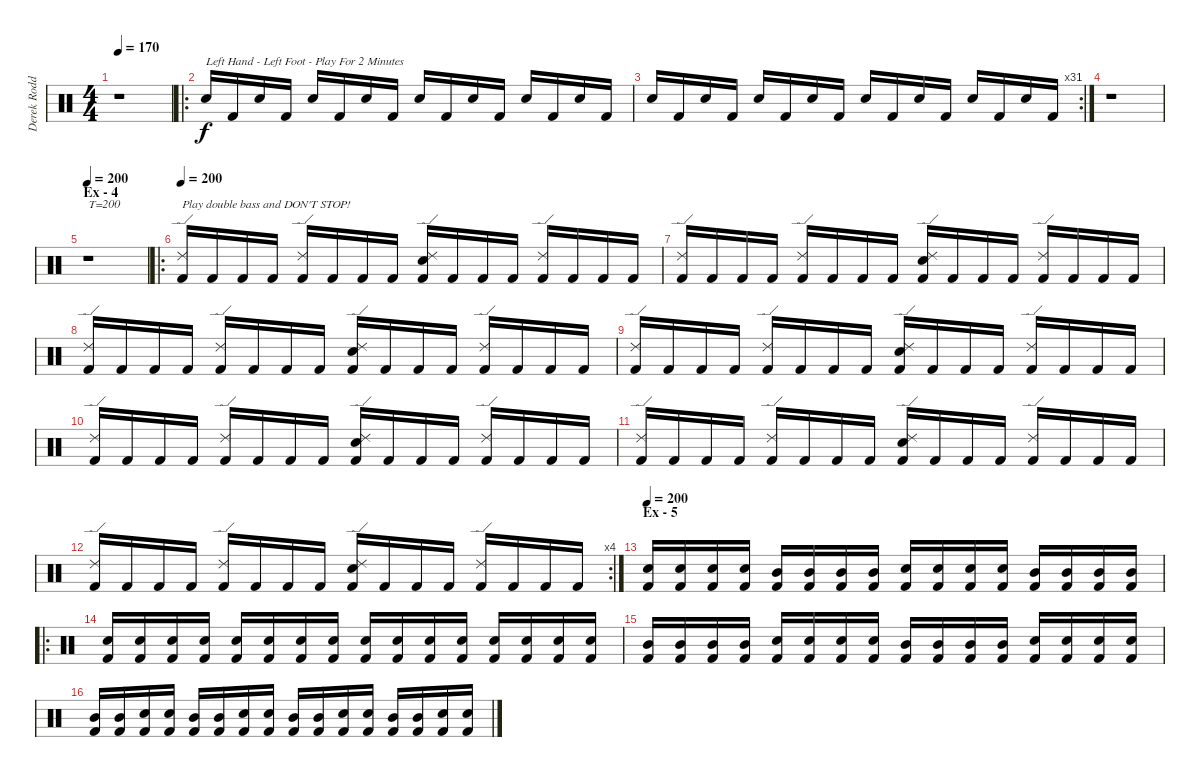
\track ("Derek Roddy" "Derek Rodd") {instrument percussion}
\staff {score}
\articulation defaults
\ts (4 4)
\tempo 170
\clef neutral
\ks c
r.1{dy f} |
\ro "Electric Snare (hit)".16{txt "Left Hand - Left Foot - Play For 2 Minutes"} "Kick (hit) 2".16 "Electric Snare (hit)".16 "Kick (hit) 2".16 "Electric Snare (hit)".16 "Kick (hit) 2".16 "Electric Snare (hit)".16 "Kick (hit) 2".16 "Electric Snare (hit)".16 "Kick (hit) 2".16 "Electric Snare (hit)".16 "Kick (hit) 2".16 "Electric Snare (hit)".16 "Kick (hit) 2".16 "Electric Snare (hit)".16 "Kick (hit) 2".16
|
\rc 31 "Electric Snare (hit)".16 "Kick (hit) 2".16 "Electric Snare (hit)".16 "Kick (hit) 2".16 "Electric Snare (hit)".16 "Kick (hit) 2".16 "Electric Snare (hit)".16 "Kick (hit) 2".16 "Electric Snare (hit)".16 "Kick (hit) 2".16 "Electric Snare (hit)".16 "Kick (hit) 2".16 "Electric Snare (hit)".16 "Kick (hit) 2".16 "Electric Snare (hit)".16 "Kick (hit) 2".16
|
r.1 |
\section ("" "Ex - 4")
\tempo 200
r.1{txt "T=200 "} |
\ro
\tempo 200
("Ride (edge) 2" "Kick (hit) 2").16{txt "Play double bass and DON'T STOP!"} "Kick (hit) 2".16 "Kick (hit) 2".16 "Kick (hit) 2".16 ("Ride (edge) 2" "Kick (hit) 2").16 "Kick (hit) 2".16 "Kick (hit) 2".16 "Kick (hit) 2".16 ("Ride (edge) 2" "Electric Snare (hit)" "Kick (hit) 2").16 "Kick (hit) 2".16 "Kick (hit) 2".16 "Kick (hit) 2".16 ("Ride (edge) 2" "Kick (hit) 2").16 "Kick (hit) 2".16 "Kick (hit) 2".16 "Kick (hit) 2".16 |
("Ride (edge) 2" "Kick (hit) 2").16 "Kick (hit) 2".16 "Kick (hit) 2".16 "Kick (hit) 2".16 ("Ride (edge) 2" "Kick (hit) 2").16 "Kick (hit) 2".16 "Kick (hit) 2".16 "Kick (hit) 2".16 ("Ride (edge) 2" "Electric Snare (hit)" "Kick (hit) 2").16 "Kick (hit) 2".16 "Kick (hit) 2".16 "Kick (hit) 2".16 ("Ride (edge) 2" "Kick (hit) 2").16 "Kick (hit) 2".16 "Kick (hit) 2".16 "Kick (hit) 2".16 |
("Ride (edge) 2" "Kick (hit) 2").16 "Kick (hit) 2".16 "Kick (hit) 2".16 "Kick (hit) 2".16 ("Ride (edge) 2" "Kick (hit) 2").16 "Kick (hit) 2".16 "Kick (hit) 2".16 "Kick (hit) 2".16 ("Ride (edge) 2" "Electric Snare (hit)" "Kick (hit) 2").16 "Kick (hit) 2".16 "Kick (hit) 2".16 "Kick (hit) 2".16 ("Ride (edge) 2" "Kick (hit) 2").16 "Kick (hit) 2".16 "Kick (hit) 2".16 "Kick (hit) 2".16 |
("Ride (edge) 2" "Kick (hit) 2").16 "Kick (hit) 2".16 "Kick (hit) 2".16 "Kick (hit) 2".16 ("Ride (edge) 2" "Kick (hit) 2").16 "Kick (hit) 2".16 "Kick (hit) 2".16 "Kick (hit) 2".16 ("Ride (edge) 2" "Electric Snare (hit)" "Kick (hit) 2").16 "Kick (hit) 2".16 "Kick (hit) 2".16 "Kick (hit) 2".16 ("Ride (edge) 2" "Kick (hit) 2").16 "Kick (hit) 2".16 "Kick (hit) 2".16 "Kick (hit) 2".16 |
("Ride (edge) 2" "Kick (hit) 2").16 "Kick (hit) 2".16 "Kick (hit) 2".16 "Kick (hit) 2".16 ("Ride (edge) 2" "Kick (hit) 2").16 "Kick (hit) 2".16 "Kick (hit) 2".16 "Kick (hit) 2".16 ("Ride (edge) 2" "Electric Snare (hit)" "Kick (hit) 2").16 "Kick (hit) 2".16 "Kick (hit) 2".16 "Kick (hit) 2".16 ("Ride (edge) 2" "Kick (hit) 2").16 "Kick (hit) 2".16 "Kick (hit) 2".16 "Kick (hit) 2".16 |
("Ride (edge) 2" "Kick (hit) 2").16 "Kick (hit) 2".16 "Kick (hit) 2".16 "Kick (hit) 2".16 ("Ride (edge) 2" "Kick (hit) 2").16 "Kick (hit) 2".16 "Kick (hit) 2".16 "Kick (hit) 2".16 ("Ride (edge) 2" "Electric Snare (hit)" "Kick (hit) 2").16 "Kick (hit) 2".16 "Kick (hit) 2".16 "Kick (hit) 2".16 ("Ride (edge) 2" "Kick (hit) 2").16 "Kick (hit) 2".16 "Kick (hit) 2".16 "Kick (hit) 2".16 |
\rc 4
("Ride (edge) 2" "Kick (hit) 2").16 "Kick (hit) 2".16 "Kick (hit) 2".16 "Kick (hit) 2".16 ("Ride (edge) 2" "Kick (hit) 2").16 "Kick (hit) 2".16 "Kick (hit) 2".16 "Kick (hit) 2".16 ("Ride (edge) 2" "Electric Snare (hit)" "Kick (hit) 2").16 "Kick (hit) 2".16 "Kick (hit) 2".16 "Kick (hit) 2".16 ("Ride (edge) 2" "Kick (hit) 2").16 "Kick (hit) 2".16 "Kick (hit) 2".16 "Kick (hit) 2".16 |
\section ("" "Ex - 5")
\tempo 200
("Electric Snare (hit)" "Kick (hit) 2").16 ("Electric Snare (hit)" "Kick (hit) 2").16 ("Electric Snare (hit)" "Kick (hit) 2").16 ("Electric Snare (hit)" "Kick (hit) 2").16 ("Mid Tom (hit)" "Kick (hit) 2").16 ("Mid Tom (hit)" "Kick (hit) 2").16 ("Mid Tom (hit)" "Kick (hit) 2").16 ("Mid Tom (hit)" "Kick (hit) 2").16 ("Electric Snare (hit)" "Kick (hit) 2").16 ("Electric Snare (hit)" "Kick (hit) 2").16 ("Electric Snare (hit)" "Kick (hit) 2").16 ("Electric Snare (hit)" "Kick (hit) 2").16 ("Mid Tom (hit)" "Kick (hit) 2").16 ("Mid Tom (hit)" "Kick (hit) 2").16 ("Mid Tom (hit)" "Kick (hit) 2").16 ("Mid Tom (hit)" "Kick (hit) 2").16 |
\ro
("Electric Snare (hit)" "Kick (hit) 2").16 ("Electric Snare (hit)" "Kick (hit) 2").16 ("Electric Snare (hit)" "Kick (hit) 2").16 ("Electric Snare (hit)" "Kick (hit) 2").16 ("Electric Snare (hit)" "Kick (hit) 2").16 ("Electric Snare (hit)" "Kick (hit) 2").16 ("Electric Snare (hit)" "Kick (hit) 2").16 ("Electric Snare (hit)" "Kick (hit) 2").16 ("Electric Snare (hit)" "Kick (hit) 2").16 ("Electric Snare (hit)" "Kick (hit) 2").16 ("Electric Snare (hit)" "Kick (hit) 2").16 ("Electric Snare (hit)" "Kick (hit) 2").16 ("Electric Snare (hit)" "Kick (hit) 2").16 ("Electric Snare (hit)" "Kick (hit) 2").16 ("Electric Snare (hit)" "Kick (hit) 2").16 ("Electric Snare (hit)" "Kick (hit) 2").16 |
("Mid Tom (hit)" "Kick (hit) 2").16 ("Mid Tom (hit)" "Kick (hit) 2").16 ("Mid Tom (hit)" "Kick (hit) 2").16 ("Mid Tom (hit)" "Kick (hit) 2").16 ("Electric Snare (hit)" "Kick (hit) 2").16 ("Electric Snare (hit)" "Kick (hit) 2").16 ("Electric Snare (hit)" "Kick (hit) 2").16 ("Electric Snare (hit)" "Kick (hit) 2").16 ("Mid Tom (hit)" "Kick (hit) 2").16 ("Mid Tom (hit)" "Kick (hit) 2").16 ("Mid Tom (hit)" "Kick (hit) 2").16 ("Mid Tom (hit)" "Kick (hit) 2").16 ("Electric Snare (hit)" "Kick (hit) 2").16 ("Electric Snare (hit)" "Kick (hit) 2").16 ("Electric Snare (hit)" "Kick (hit) 2").16 ("Electric Snare (hit)" "Kick (hit) 2").16 |
("Mid Tom (hit)" "Kick (hit) 2").16 ("Mid Tom (hit)" "Kick (hit) 2").16 ("Electric Snare (hit)" "Kick (hit) 2").16 ("Electric Snare (hit)" "Kick (hit) 2").16 ("Mid Tom (hit)" "Kick (hit) 2").16 ("Mid Tom (hit)" "Kick (hit) 2").16 ("Electric Snare (hit)" "Kick (hit) 2").16 ("Electric Snare (hit)" "Kick (hit) 2").16 ("Mid Tom (hit)" "Kick (hit) 2").16 ("Mid Tom (hit)" "Kick (hit) 2").16 ("Electric Snare (hit)" "Kick (hit) 2").16 ("Electric Snare (hit)" "Kick (hit) 2").16 ("Mid Tom (hit)" "Kick (hit) 2").16 ("Mid Tom (hit)" "Kick (hit) 2").16 ("Electric Snare (hit)" "Kick (hit) 2").16 ("Electric Snare (hit)" "Kick (hit) 2").16
